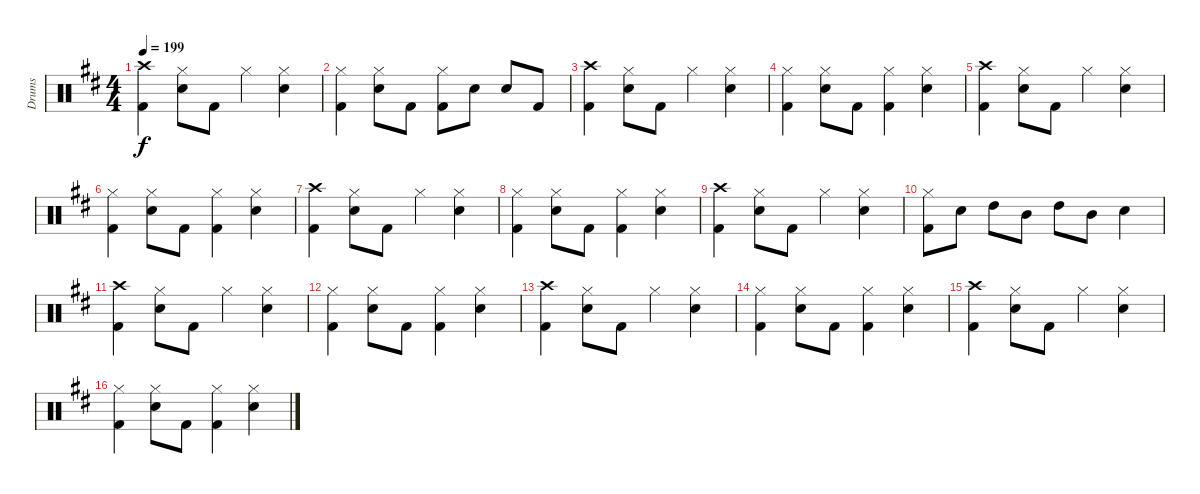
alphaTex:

\track ("Drums" "Drums") {instrument percussion}
\staff {score}
\articulation defaults
\ts (4 4)
\tempo 199
\clef neutral
\ks d
("Crash high (hit)" "Kick (hit) 2").4{dy f} ("Hi-Hat (closed)" "Snare (hit) 2").8 "Kick (hit) 2".8 "Hi-Hat (closed)".4 ("Hi-Hat (closed)" "Snare (hit) 2").4 |
("Hi-Hat (closed)" "Kick (hit) 2").4 ("Hi-Hat (closed)" "Snare (hit) 2").8 "Kick (hit) 2".8 ("Hi-Hat (closed)" "Kick (hit) 2").8 "Snare (hit) 2".8 "Snare (hit) 2".8 "Kick (hit) 2".8 |
("Crash high (hit)" "Kick (hit) 2").4 ("Hi-Hat (closed)" "Snare (hit) 2").8 "Kick (hit) 2".8 "Hi-Hat (closed)".4 ("Hi-Hat (closed)" "Snare (hit) 2").4 |
("Hi-Hat (closed)" "Kick (hit) 2").4 ("Hi-Hat (closed)" "Snare (hit) 2").8 "Kick (hit) 2".8 ("Hi-Hat (closed)" "Kick (hit) 2").4 ("Hi-Hat (closed)" "Snare (hit) 2").4 |
("Crash high (hit)" "Kick (hit) 2").4 ("Hi-Hat (closed)" "Snare (hit) 2").8 "Kick (hit) 2".8 "Hi-Hat (closed)".4 ("Hi-Hat (closed)" "Snare (hit) 2").4 |
("Hi-Hat (closed)" "Kick (hit) 2").4 ("Hi-Hat (closed)" "Snare (hit) 2").8 "Kick (hit) 2".8 ("Hi-Hat (closed)" "Kick (hit) 2").4 ("Hi-Hat (closed)" "Snare (hit) 2").4 |
("Crash high (hit)" "Kick (hit) 2").4 ("Hi-Hat (closed)" "Snare (hit) 2").8 "Kick (hit) 2".8 "Hi-Hat (closed)".4 ("Hi-Hat (closed)" "Snare (hit) 2").4 |
("Hi-Hat (closed)" "Kick (hit) 2").4 ("Hi-Hat (closed)" "Snare (hit) 2").8 "Kick (hit) 2".8 ("Hi-Hat (closed)" "Kick (hit) 2").4 ("Hi-Hat (closed)" "Snare (hit) 2").4 |
("Crash high (hit)" "Kick (hit) 2").4 ("Hi-Hat (closed)" "Snare (hit) 2").8 "Kick (hit) 2".8 "Hi-Hat (closed)".4 ("Hi-Hat (closed)" "Snare (hit) 2").4 |
("Hi-Hat (closed)" "Kick (hit) 2").8 "Snare (hit) 2".8 "High Tom (hit)".8 "Mid Tom (hit)".8 "High Tom (hit)".8 "Mid Tom (hit)".8 "Snare (hit) 2".4 |
("Crash high (hit)" "Kick (hit) 2").4 ("Hi-Hat (closed)" "Snare (hit) 2").8 "Kick (hit) 2".8 "Hi-Hat (closed)".4 ("Hi-Hat (closed)" "Snare (hit) 2").4 |
("Hi-Hat (closed)" "Kick (hit) 2").4 ("Hi-Hat (closed)" "Snare (hit) 2").8 "Kick (hit) 2".8 ("Hi-Hat (closed)" "Kick (hit) 2").4 ("Hi-Hat (closed)" "Snare (hit) 2").4 |
("Crash high (hit)" "Kick (hit) 2").4 ("Hi-Hat (closed)" "Snare (hit) 2").8 "Kick (hit) 2".8 "Hi-Hat (closed)".4 ("Hi-Hat (closed)" "Snare (hit) 2").4 |
("Hi-Hat (closed)" "Kick (hit) 2").4 ("Hi-Hat (closed)" "Snare (hit) 2").8 "Kick (hit) 2".8 ("Hi-Hat (closed)" "Kick (hit) 2").4 ("Hi-Hat (closed)" "Snare (hit) 2").4 |
("Crash high (hit)" "Kick (hit) 2").4 ("Hi-Hat (closed)" "Snare (hit) 2").8 "Kick (hit) 2".8 "Hi-Hat (closed)".4 ("Hi-Hat (closed)" "Snare (hit) 2").4 |
("Hi-Hat (closed)" "Kick (hit) 2").4 ("Hi-Hat (closed)" "Snare (hit) 2").8 "Kick (hit) 2".8 ("Hi-Hat (closed)" "Kick (hit) 2").4 ("Hi-Hat (closed)" "Snare (hit) 2").4
